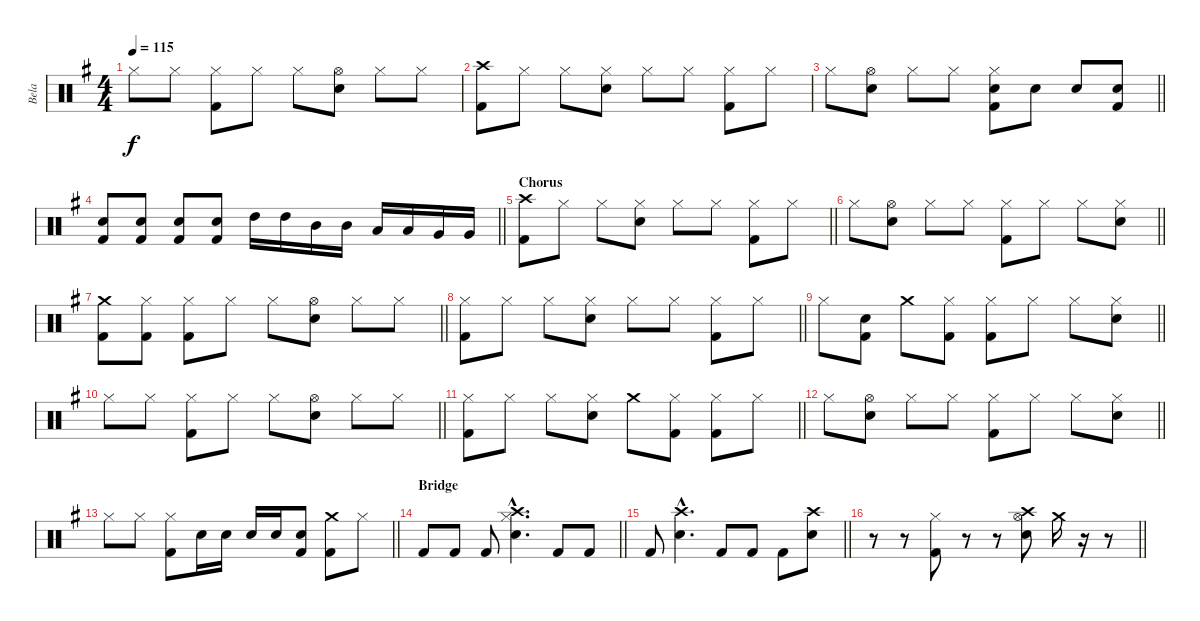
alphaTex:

\track ("Bela" "Bela") {instrument percussion}
\staff {score}
\articulation defaults
\ts (4 4)
\tempo 115
\clef neutral
\ks eminor "Hi-Hat (closed)".8{dy f} "Hi-Hat (closed)".8
("Hi-Hat (closed)" "Kick (hit) 2").8 "Hi-Hat (closed)".8 "Hi-Hat (closed)".8 ("Hi-Hat (open)" "Electric Snare (hit)").8 "Hi-Hat (closed)".8 "Hi-Hat (closed)".8 |
("Crash high (hit)" "Kick (hit) 2").8 "Hi-Hat (closed)".8 "Hi-Hat (closed)".8 ("Hi-Hat (closed)" "Electric Snare (hit)").8 "Hi-Hat (closed)".8 "Hi-Hat (closed)".8 ("Hi-Hat (closed)" "Kick (hit) 2").8 "Hi-Hat (closed)".8 |
\barLineRight lightlight "Hi-Hat (closed)".8
("Hi-Hat (open)" "Electric Snare (hit)").8 "Hi-Hat (closed)".8 "Hi-Hat (closed)".8 ("Hi-Hat (closed)" "Electric Snare (hit)" "Kick (hit) 2").8 "Electric Snare (hit)".8 "Electric Snare (hit)".8 ("Electric Snare (hit)" "Kick (hit) 2").8 |
\barLineRight lightlight
("Electric Snare (hit)" "Kick (hit) 2").8 ("Electric Snare (hit)" "Kick (hit) 2").8 ("Electric Snare (hit)" "Kick (hit) 2").8 ("Electric Snare (hit)" "Kick (hit) 2").8 "High Tom (hit)".16 "High Tom (hit)".16 "Mid Tom (hit)".16 "Mid Tom (hit)".16 "Low Tom (hit)".16 "Low Tom (hit)".16 "Very Low Tom (hit)".16 "Very Low Tom (hit)".16 |
\section ("" "Chorus")
\barLineRight lightlight
("Crash high (hit)" "Kick (hit) 2").8 "Hi-Hat (closed)".8 "Hi-Hat (closed)".8 ("Hi-Hat (closed)" "Electric Snare (hit)").8 "Hi-Hat (closed)".8 "Hi-Hat (closed)".8 ("Hi-Hat (closed)" "Kick (hit) 2").8 "Hi-Hat (closed)".8 |
\barLineRight lightlight "Hi-Hat (closed)".8
("Hi-Hat (open)" "Electric Snare (hit)").8 "Hi-Hat (closed)".8 "Hi-Hat (closed)".8 ("Hi-Hat (closed)" "Kick (hit) 2").8 "Hi-Hat (closed)".8 "Hi-Hat (closed)".8 ("Hi-Hat (closed)" "Electric Snare (hit)").8 |
\barLineRight lightlight
("Crash medium (hit)" "Kick (hit) 2").8 ("Hi-Hat (closed)" "Kick (hit) 2").8 ("Hi-Hat (closed)" "Kick (hit) 2").8 "Hi-Hat (closed)".8 "Hi-Hat (closed)".8 ("Hi-Hat (open)" "Electric Snare (hit)").8 "Hi-Hat (closed)".8 "Hi-Hat (closed)".8 |
\barLineRight lightlight
("Hi-Hat (closed)" "Kick (hit) 2").8 "Hi-Hat (closed)".8 "Hi-Hat (closed)".8 ("Hi-Hat (closed)" "Electric Snare (hit)").8 "Hi-Hat (closed)".8 "Hi-Hat (closed)".8 ("Hi-Hat (closed)" "Kick (hit) 2").8 "Hi-Hat (closed)".8 |
\barLineRight lightlight "Hi-Hat (closed)".8
("Electric Snare (hit)" "Kick (hit) 2").8 "Crash medium (hit)".8 ("Hi-Hat (closed)" "Kick (hit) 2").8 ("Hi-Hat (closed)" "Kick (hit) 2").8 "Hi-Hat (closed)".8 "Hi-Hat (closed)".8 ("Electric Snare (hit)" "Hi-Hat (closed)").8 |
\barLineRight lightlight "Hi-Hat (closed)".8 "Hi-Hat (closed)".8
("Hi-Hat (closed)" "Kick (hit) 2").8 "Hi-Hat (closed)".8 "Hi-Hat (closed)".8 ("Hi-Hat (open)" "Electric Snare (hit)").8 "Hi-Hat (closed)".8 "Hi-Hat (closed)".8 |
\barLineRight lightlight
("Hi-Hat (closed)" "Kick (hit) 2").8 "Hi-Hat (closed)".8 "Hi-Hat (closed)".8 ("Hi-Hat (closed)" "Electric Snare (hit)").8 "Crash medium (hit)".8 ("Hi-Hat (closed)" "Kick (hit) 2").8 ("Hi-Hat (closed)" "Kick (hit) 2").8 "Hi-Hat (closed)".8 |
\barLineRight lightlight "Hi-Hat (closed)".8
("Hi-Hat (open)" "Electric Snare (hit)").8 "Hi-Hat (closed)".8 "Hi-Hat (closed)".8 ("Hi-Hat (closed)" "Kick (hit) 2").8 "Hi-Hat (closed)".8 "Hi-Hat (closed)".8 ("Electric Snare (hit)" "Hi-Hat (closed)").8 |
\barLineRight lightlight "Hi-Hat (closed)".8 "Hi-Hat (closed)".8
("Hi-Hat (closed)" "Kick (hit) 2").8 "Electric Snare (hit)".16 "Electric Snare (hit)".16 "Electric Snare (hit)".16 "Electric Snare (hit)".16 ("Electric Snare (hit)" "Kick (hit) 2").8 ("Crash medium (hit)" "Kick (hit) 2").8 "Hi-Hat (closed)".8 |
\section ("" "Bridge")
\barLineRight lightlight "Kick (hit) 2".8 "Kick (hit) 2".8 "Kick (hit) 2".8
("Crash high (hit)"{hac} "Hi-Hat (closed)"{hac} "Electric Snare (hit)"{hac}).4{d} "Kick (hit) 2".8 "Kick (hit) 2".8 |
\barLineRight lightlight "Kick (hit) 2".8
("Crash high (hit)"{hac} "Electric Snare (hit)"{hac}).4{d} "Kick (hit) 2".8 "Kick (hit) 2".8 "Kick (hit) 2".8 ("Crash high (hit)" "Electric Snare (hit)").8 |
\barLineRight lightlight
r.8 r.8 ("Hi-Hat (closed)" "Kick (hit) 2").8 r.8 r.8 ("Hi-Hat (open)" "Electric Snare (hit)" "Crash high (hit)").8 "Crash medium (hit)".16 r.16 r.8
